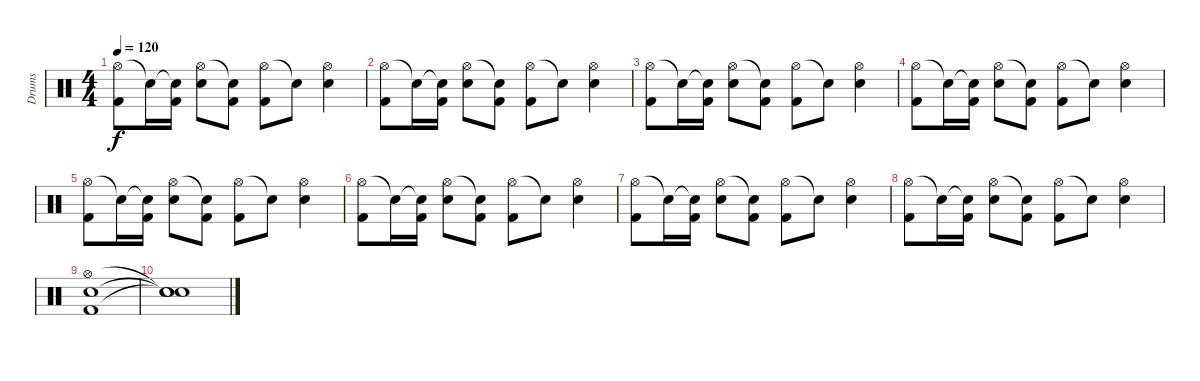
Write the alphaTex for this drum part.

\track ("Drums" "Drums") {instrument percussion}
\staff {score}
\articulation defaults
\ts (4 4)
\tempo 120
\clef neutral
\ks c
("Hi-Hat (open)" "Kick (hit) 2").8{dy f} "Snare (hit)"{t}.16 ("Snare (hit)"{t} "Kick (hit) 2").16 ("Hi-Hat (open)" "Snare (hit) 2").8 ("Snare (hit)"{t} "Kick (hit) 2").8 ("Hi-Hat (open)" "Kick (hit) 2").8 "Snare (hit)"{t}.8 ("Hi-Hat (open)" "Snare (hit) 2").4 |
("Hi-Hat (open)" "Kick (hit) 2").8 "Snare (hit)"{t}.16 ("Snare (hit)"{t} "Kick (hit) 2").16 ("Hi-Hat (open)" "Snare (hit) 2").8 ("Snare (hit)"{t} "Kick (hit) 2").8 ("Hi-Hat (open)" "Kick (hit) 2").8 "Snare (hit)"{t}.8 ("Hi-Hat (open)" "Snare (hit) 2").4 |
("Hi-Hat (open)" "Kick (hit) 2").8 "Snare (hit)"{t}.16 ("Snare (hit)"{t} "Kick (hit) 2").16 ("Hi-Hat (open)" "Snare (hit) 2").8 ("Snare (hit)"{t} "Kick (hit) 2").8 ("Hi-Hat (open)" "Kick (hit) 2").8 "Snare (hit)"{t}.8 ("Hi-Hat (open)" "Snare (hit) 2").4 |
("Hi-Hat (open)" "Kick (hit) 2").8 "Snare (hit)"{t}.16 ("Snare (hit)"{t} "Kick (hit) 2").16 ("Hi-Hat (open)" "Snare (hit) 2").8 ("Snare (hit)"{t} "Kick (hit) 2").8 ("Hi-Hat (open)" "Kick (hit) 2").8 "Snare (hit)"{t}.8 ("Hi-Hat (open)" "Snare (hit) 2").4 |
("Hi-Hat (open)" "Kick (hit) 2").8 "Snare (hit)"{t}.16 ("Snare (hit)"{t} "Kick (hit) 2").16 ("Hi-Hat (open)" "Snare (hit) 2").8 ("Snare (hit)"{t} "Kick (hit) 2").8 ("Hi-Hat (open)" "Kick (hit) 2").8 "Snare (hit)"{t}.8 ("Hi-Hat (open)" "Snare (hit) 2").4 |
("Hi-Hat (open)" "Kick (hit) 2").8 "Snare (hit)"{t}.16 ("Snare (hit)"{t} "Kick (hit) 2").16 ("Hi-Hat (open)" "Snare (hit) 2").8 ("Snare (hit)"{t} "Kick (hit) 2").8 ("Hi-Hat (open)" "Kick (hit) 2").8 "Snare (hit)"{t}.8 ("Hi-Hat (open)" "Snare (hit) 2").4 |
("Hi-Hat (open)" "Kick (hit) 2").8 "Snare (hit)"{t}.16 ("Snare (hit)"{t} "Kick (hit) 2").16 ("Hi-Hat (open)" "Snare (hit) 2").8 ("Snare (hit)"{t} "Kick (hit) 2").8 ("Hi-Hat (open)" "Kick (hit) 2").8 "Snare (hit)"{t}.8 ("Hi-Hat (open)" "Snare (hit) 2").4 |
("Hi-Hat (open)" "Kick (hit) 2").8 "Snare (hit)"{t}.16 ("Snare (hit)"{t} "Kick (hit) 2").16 ("Hi-Hat (open)" "Snare (hit) 2").8 ("Snare (hit)"{t} "Kick (hit) 2").8 ("Hi-Hat (open)" "Kick (hit) 2").8 "Snare (hit)"{t}.8 ("Hi-Hat (open)" "Snare (hit) 2").4 |
("Hi-Hat (open)" "Snare (hit) 2" "Kick (hit) 2").1 |
("Snare (hit)"{t} "Snare (hit)"{t} "Snare (hit)"{t}).1
